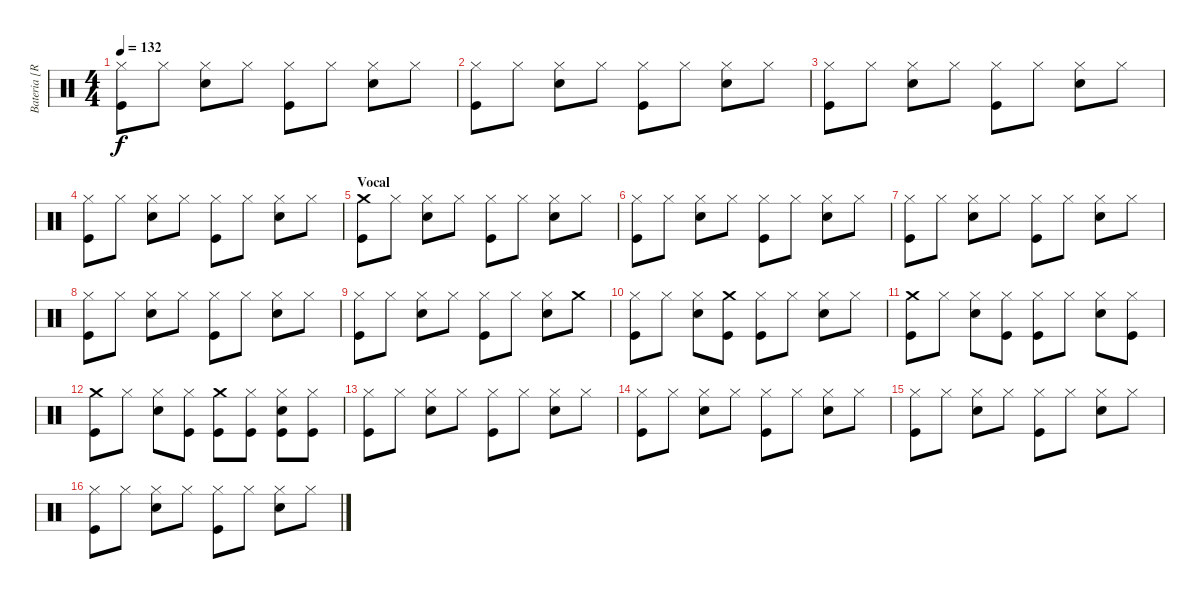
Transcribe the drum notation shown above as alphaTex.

\track ("Bateria [Ricardo Confessori]" "Bateria [R") {instrument percussion}
\staff {score}
\articulation defaults
\ts (4 4)
\tempo 132
\clef neutral
\ks c
("Hi-Hat (closed)" "Kick (hit)").8{dy f} "Hi-Hat (closed)".8 ("Hi-Hat (closed)" "Electric Snare (hit)").8 "Hi-Hat (closed)".8 ("Hi-Hat (closed)" "Kick (hit)").8 "Hi-Hat (closed)".8 ("Hi-Hat (closed)" "Electric Snare (hit)").8 "Hi-Hat (closed)".8 |
("Hi-Hat (closed)" "Kick (hit)").8 "Hi-Hat (closed)".8 ("Hi-Hat (closed)" "Electric Snare (hit)").8 "Hi-Hat (closed)".8 ("Hi-Hat (closed)" "Kick (hit)").8 "Hi-Hat (closed)".8 ("Hi-Hat (closed)" "Electric Snare (hit)").8 "Hi-Hat (closed)".8 |
("Hi-Hat (closed)" "Kick (hit)").8 "Hi-Hat (closed)".8 ("Hi-Hat (closed)" "Electric Snare (hit)").8 "Hi-Hat (closed)".8 ("Hi-Hat (closed)" "Kick (hit)").8 "Hi-Hat (closed)".8 ("Hi-Hat (closed)" "Electric Snare (hit)").8 "Hi-Hat (closed)".8 |
("Hi-Hat (closed)" "Kick (hit)").8 "Hi-Hat (closed)".8 ("Hi-Hat (closed)" "Electric Snare (hit)").8 "Hi-Hat (closed)".8 ("Hi-Hat (closed)" "Kick (hit)").8 "Hi-Hat (closed)".8 ("Hi-Hat (closed)" "Electric Snare (hit)").8 "Hi-Hat (closed)".8 |
\section ("" "Vocal")
("Crash medium (hit)" "Kick (hit)").8 "Hi-Hat (closed)".8 ("Hi-Hat (closed)" "Electric Snare (hit)").8 "Hi-Hat (closed)".8 ("Hi-Hat (closed)" "Kick (hit)").8 "Hi-Hat (closed)".8 ("Hi-Hat (closed)" "Electric Snare (hit)").8 "Hi-Hat (closed)".8 |
("Hi-Hat (closed)" "Kick (hit)").8 "Hi-Hat (closed)".8 ("Hi-Hat (closed)" "Electric Snare (hit)").8 "Hi-Hat (closed)".8 ("Hi-Hat (closed)" "Kick (hit)").8 "Hi-Hat (closed)".8 ("Hi-Hat (closed)" "Electric Snare (hit)").8 "Hi-Hat (closed)".8 |
("Hi-Hat (closed)" "Kick (hit)").8 "Hi-Hat (closed)".8 ("Hi-Hat (closed)" "Electric Snare (hit)").8 "Hi-Hat (closed)".8 ("Hi-Hat (closed)" "Kick (hit)").8 "Hi-Hat (closed)".8 ("Hi-Hat (closed)" "Electric Snare (hit)").8 "Hi-Hat (closed)".8 |
("Hi-Hat (closed)" "Kick (hit)").8 "Hi-Hat (closed)".8 ("Hi-Hat (closed)" "Electric Snare (hit)").8 "Hi-Hat (closed)".8 ("Hi-Hat (closed)" "Kick (hit)").8 "Hi-Hat (closed)".8 ("Hi-Hat (closed)" "Electric Snare (hit)").8 "Hi-Hat (closed)".8 |
("Hi-Hat (closed)" "Kick (hit)").8 "Hi-Hat (closed)".8 ("Hi-Hat (closed)" "Electric Snare (hit)").8 "Hi-Hat (closed)".8 ("Hi-Hat (closed)" "Kick (hit)").8 "Hi-Hat (closed)".8 ("Hi-Hat (closed)" "Electric Snare (hit)").8 "Crash medium (hit)".8 |
("Hi-Hat (closed)" "Kick (hit)").8 "Hi-Hat (closed)".8 ("Hi-Hat (closed)" "Electric Snare (hit)").8 ("Crash medium (hit)" "Kick (hit)").8 ("Hi-Hat (closed)" "Kick (hit)").8 "Hi-Hat (closed)".8 ("Hi-Hat (closed)" "Electric Snare (hit)").8 "Hi-Hat (closed)".8 |
("Crash medium (hit)" "Kick (hit)").8 "Hi-Hat (closed)".8 ("Hi-Hat (closed)" "Electric Snare (hit)").8 ("Hi-Hat (closed)" "Kick (hit)").8 ("Hi-Hat (closed)" "Kick (hit)").8 "Hi-Hat (closed)".8 ("Hi-Hat (closed)" "Electric Snare (hit)").8 ("Hi-Hat (closed)" "Kick (hit)").8 |
("Crash medium (hit)" "Kick (hit)").8 "Hi-Hat (closed)".8 ("Hi-Hat (closed)" "Electric Snare (hit)").8 ("Hi-Hat (closed)" "Kick (hit)").8 ("Crash medium (hit)" "Kick (hit)").8 ("Hi-Hat (closed)" "Kick (hit)").8 ("Hi-Hat (closed)" "Electric Snare (hit)" "Kick (hit)").8 ("Hi-Hat (closed)" "Kick (hit)").8 |
("Hi-Hat (closed)" "Kick (hit)").8 "Hi-Hat (closed)".8 ("Hi-Hat (closed)" "Electric Snare (hit)").8 "Hi-Hat (closed)".8 ("Hi-Hat (closed)" "Kick (hit)").8 "Hi-Hat (closed)".8 ("Hi-Hat (closed)" "Electric Snare (hit)").8 "Hi-Hat (closed)".8 |
("Hi-Hat (closed)" "Kick (hit)").8 "Hi-Hat (closed)".8 ("Hi-Hat (closed)" "Electric Snare (hit)").8 "Hi-Hat (closed)".8 ("Hi-Hat (closed)" "Kick (hit)").8 "Hi-Hat (closed)".8 ("Hi-Hat (closed)" "Electric Snare (hit)").8 "Hi-Hat (closed)".8 |
("Hi-Hat (closed)" "Kick (hit)").8 "Hi-Hat (closed)".8 ("Hi-Hat (closed)" "Electric Snare (hit)").8 "Hi-Hat (closed)".8 ("Hi-Hat (closed)" "Kick (hit)").8 "Hi-Hat (closed)".8 ("Hi-Hat (closed)" "Electric Snare (hit)").8 "Hi-Hat (closed)".8 |
("Hi-Hat (closed)" "Kick (hit)").8 "Hi-Hat (closed)".8 ("Hi-Hat (closed)" "Electric Snare (hit)").8 "Hi-Hat (closed)".8 ("Hi-Hat (closed)" "Kick (hit)").8 "Hi-Hat (closed)".8 ("Hi-Hat (closed)" "Electric Snare (hit)").8 "Hi-Hat (closed)".8
